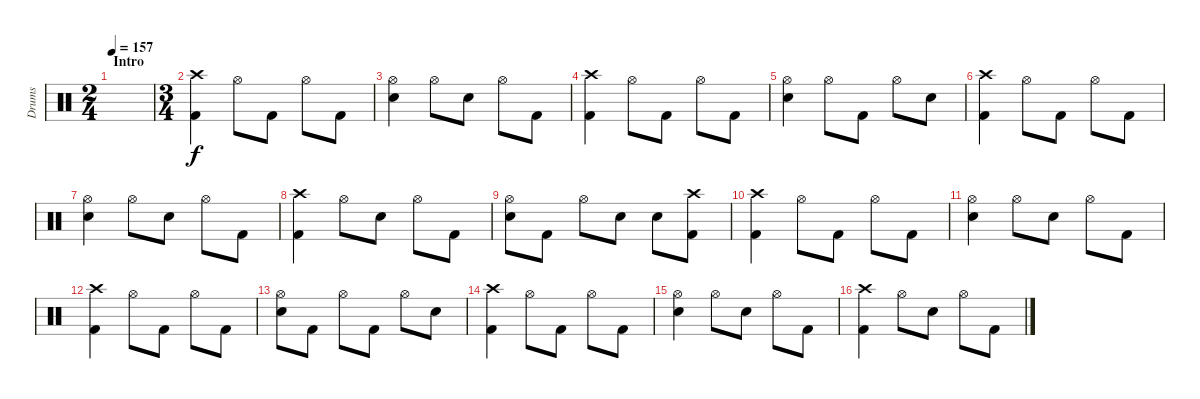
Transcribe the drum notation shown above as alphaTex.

\track ("Drums" "Drums") {instrument percussion}
\staff {score}
\articulation defaults
\ts (2 4)
\section ("" "Intro")
\tempo 157
\clef neutral
\ks c
|
\ts (3 4)
("Crash high (hit)" "Kick (hit) 2").4 "Hi-Hat (open)".8 "Kick (hit) 2".8 "Hi-Hat (open)".8 "Kick (hit) 2".8 |
("Hi-Hat (open)" "Electric Snare (hit)").4 "Hi-Hat (open)".8 "Electric Snare (hit)".8 "Hi-Hat (open)".8 "Kick (hit) 2".8 |
("Crash high (hit)" "Kick (hit) 2").4 "Hi-Hat (open)".8 "Kick (hit) 2".8 "Hi-Hat (open)".8 "Kick (hit) 2".8 |
("Hi-Hat (open)" "Electric Snare (hit)").4 "Hi-Hat (open)".8 "Kick (hit) 2".8 "Hi-Hat (open)".8 "Electric Snare (hit)".8 |
("Crash high (hit)" "Kick (hit) 2").4 "Hi-Hat (open)".8 "Kick (hit) 2".8 "Hi-Hat (open)".8 "Kick (hit) 2".8 |
("Hi-Hat (open)" "Electric Snare (hit)").4 "Hi-Hat (open)".8 "Electric Snare (hit)".8 "Hi-Hat (open)".8 "Kick (hit) 2".8 |
("Crash high (hit)" "Kick (hit) 2").4 "Hi-Hat (open)".8 "Electric Snare (hit)".8 "Hi-Hat (open)".8 "Kick (hit) 2".8 |
("Hi-Hat (open)" "Electric Snare (hit)").8 "Kick (hit) 2".8 "Hi-Hat (open)".8 "Electric Snare (hit)".8 "Electric Snare (hit)".8 ("Crash high (hit)" "Kick (hit) 2").8 |
("Crash high (hit)" "Kick (hit) 2").4 "Hi-Hat (open)".8 "Kick (hit) 2".8 "Hi-Hat (open)".8 "Kick (hit) 2".8 |
("Hi-Hat (open)" "Electric Snare (hit)").4 "Hi-Hat (open)".8 "Electric Snare (hit)".8 "Hi-Hat (open)".8 "Kick (hit) 2".8 |
("Crash high (hit)" "Kick (hit) 2").4 "Hi-Hat (open)".8 "Kick (hit) 2".8 "Hi-Hat (open)".8 "Kick (hit) 2".8 |
("Hi-Hat (open)" "Electric Snare (hit)").8 "Kick (hit) 2".8 "Hi-Hat (open)".8 "Kick (hit) 2".8 "Hi-Hat (open)".8 "Electric Snare (hit)".8 |
("Crash high (hit)" "Kick (hit) 2").4 "Hi-Hat (open)".8 "Kick (hit) 2".8 "Hi-Hat (open)".8 "Kick (hit) 2".8 |
("Hi-Hat (open)" "Electric Snare (hit)").4 "Hi-Hat (open)".8 "Electric Snare (hit)".8 "Hi-Hat (open)".8 "Kick (hit) 2".8 |
("Crash high (hit)" "Kick (hit) 2").4 "Hi-Hat (open)".8 "Electric Snare (hit)".8 "Hi-Hat (open)".8 "Kick (hit) 2".8
